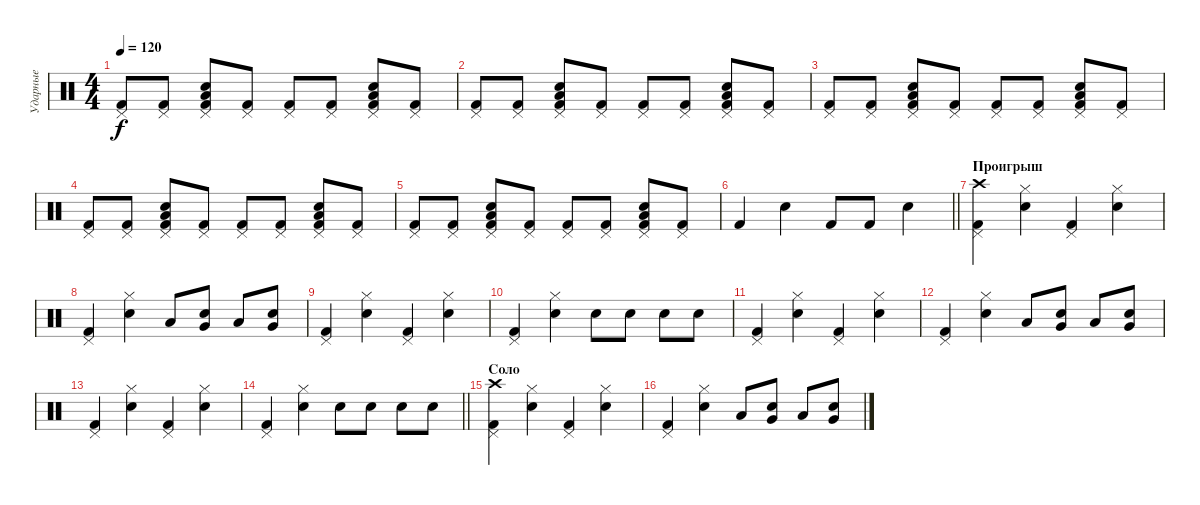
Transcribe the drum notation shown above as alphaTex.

\track ("Ударные" "Ударные") {instrument percussion}
\staff {score}
\articulation defaults
\ts (4 4)
\tempo 120
\clef neutral
\ks c
("Pedal Hi-Hat (hit)" "Kick (hit) 2").8{dy f} ("Pedal Hi-Hat (hit)" "Kick (hit) 2").8 ("Pedal Hi-Hat (hit)" "Snare (hit) 2" "Low Tom (hit)" "Kick (hit) 2").8{bd 60} ("Pedal Hi-Hat (hit)" "Kick (hit) 2").8 ("Pedal Hi-Hat (hit)" "Kick (hit) 2").8 ("Pedal Hi-Hat (hit)" "Kick (hit) 2").8 ("Pedal Hi-Hat (hit)" "Snare (hit) 2" "Low Tom (hit)" "Kick (hit) 2").8{bd 60} ("Pedal Hi-Hat (hit)" "Kick (hit) 2").8 |
("Pedal Hi-Hat (hit)" "Kick (hit) 2").8 ("Pedal Hi-Hat (hit)" "Kick (hit) 2").8 ("Pedal Hi-Hat (hit)" "Snare (hit) 2" "Low Tom (hit)" "Kick (hit) 2").8{bd 60} ("Pedal Hi-Hat (hit)" "Kick (hit) 2").8 ("Pedal Hi-Hat (hit)" "Kick (hit) 2").8 ("Pedal Hi-Hat (hit)" "Kick (hit) 2").8 ("Pedal Hi-Hat (hit)" "Snare (hit) 2" "Low Tom (hit)" "Kick (hit) 2").8{bd 60} ("Pedal Hi-Hat (hit)" "Kick (hit) 2").8 |
("Pedal Hi-Hat (hit)" "Kick (hit) 2").8 ("Pedal Hi-Hat (hit)" "Kick (hit) 2").8 ("Pedal Hi-Hat (hit)" "Snare (hit) 2" "Low Tom (hit)" "Kick (hit) 2").8{bd 60} ("Pedal Hi-Hat (hit)" "Kick (hit) 2").8 ("Pedal Hi-Hat (hit)" "Kick (hit) 2").8 ("Pedal Hi-Hat (hit)" "Kick (hit) 2").8 ("Pedal Hi-Hat (hit)" "Snare (hit) 2" "Low Tom (hit)" "Kick (hit) 2").8{bd 60} ("Pedal Hi-Hat (hit)" "Kick (hit) 2").8 |
("Pedal Hi-Hat (hit)" "Kick (hit) 2").8 ("Pedal Hi-Hat (hit)" "Kick (hit) 2").8 ("Pedal Hi-Hat (hit)" "Snare (hit) 2" "Low Tom (hit)" "Kick (hit) 2").8{bd 60} ("Pedal Hi-Hat (hit)" "Kick (hit) 2").8 ("Pedal Hi-Hat (hit)" "Kick (hit) 2").8 ("Pedal Hi-Hat (hit)" "Kick (hit) 2").8 ("Pedal Hi-Hat (hit)" "Snare (hit) 2" "Low Tom (hit)" "Kick (hit) 2").8{bd 60} ("Pedal Hi-Hat (hit)" "Kick (hit) 2").8 |
("Pedal Hi-Hat (hit)" "Kick (hit) 2").8 ("Pedal Hi-Hat (hit)" "Kick (hit) 2").8 ("Pedal Hi-Hat (hit)" "Snare (hit) 2" "Low Tom (hit)" "Kick (hit) 2").8{bd 60} ("Pedal Hi-Hat (hit)" "Kick (hit) 2").8 ("Pedal Hi-Hat (hit)" "Kick (hit) 2").8 ("Pedal Hi-Hat (hit)" "Kick (hit) 2").8 ("Pedal Hi-Hat (hit)" "Snare (hit) 2" "Low Tom (hit)" "Kick (hit) 2").8{bd 60} ("Pedal Hi-Hat (hit)" "Kick (hit) 2").8 |
\barLineRight lightlight "Kick (hit) 2".4 "Snare (hit) 2".4 "Kick (hit) 2".8 "Kick (hit) 2".8 "Snare (hit) 2".4
|
\section ("" "Проигрыш")
("Pedal Hi-Hat (hit)" "Crash high (hit)" "Kick (hit) 2").4 ("Hi-Hat (closed)" "Snare (hit) 2").4 ("Pedal Hi-Hat (hit)" "Kick (hit) 2").4 ("Hi-Hat (closed)" "Snare (hit) 2").4 |
("Pedal Hi-Hat (hit)" "Kick (hit) 2").4 ("Hi-Hat (closed)" "Snare (hit) 2").4 "Low Tom (hit)".8 ("Snare (hit) 2" "Very Low Tom (hit)").8 "Low Tom (hit)".8 ("Snare (hit) 2" "Very Low Tom (hit)").8 |
("Pedal Hi-Hat (hit)" "Kick (hit) 2").4 ("Hi-Hat (closed)" "Snare (hit) 2").4 ("Pedal Hi-Hat (hit)" "Kick (hit) 2").4 ("Hi-Hat (closed)" "Snare (hit) 2").4 |
("Pedal Hi-Hat (hit)" "Kick (hit) 2").4 ("Hi-Hat (closed)" "Snare (hit) 2").4 "Snare (hit) 2".8 "Snare (hit) 2".8 "Snare (hit) 2".8 "Snare (hit) 2".8 |
("Pedal Hi-Hat (hit)" "Kick (hit) 2").4 ("Hi-Hat (closed)" "Snare (hit) 2").4 ("Pedal Hi-Hat (hit)" "Kick (hit) 2").4 ("Hi-Hat (closed)" "Snare (hit) 2").4 |
("Pedal Hi-Hat (hit)" "Kick (hit) 2").4 ("Hi-Hat (closed)" "Snare (hit) 2").4 "Low Tom (hit)".8 ("Snare (hit) 2" "Very Low Tom (hit)").8 "Low Tom (hit)".8 ("Snare (hit) 2" "Very Low Tom (hit)").8 |
("Pedal Hi-Hat (hit)" "Kick (hit) 2").4 ("Hi-Hat (closed)" "Snare (hit) 2").4 ("Pedal Hi-Hat (hit)" "Kick (hit) 2").4 ("Hi-Hat (closed)" "Snare (hit) 2").4 |
\barLineRight lightlight
("Pedal Hi-Hat (hit)" "Kick (hit) 2").4 ("Hi-Hat (closed)" "Snare (hit) 2").4 "Snare (hit) 2".8 "Snare (hit) 2".8 "Snare (hit) 2".8 "Snare (hit) 2".8 |
\section ("" "Соло")
("Pedal Hi-Hat (hit)" "Crash high (hit)" "Kick (hit) 2").4 ("Hi-Hat (closed)" "Snare (hit) 2").4 ("Pedal Hi-Hat (hit)" "Kick (hit) 2").4 ("Hi-Hat (closed)" "Snare (hit) 2").4 |
("Pedal Hi-Hat (hit)" "Kick (hit) 2").4 ("Hi-Hat (closed)" "Snare (hit) 2").4 "Low Tom (hit)".8 ("Snare (hit) 2" "Very Low Tom (hit)").8 "Low Tom (hit)".8 ("Snare (hit) 2" "Very Low Tom (hit)").8
